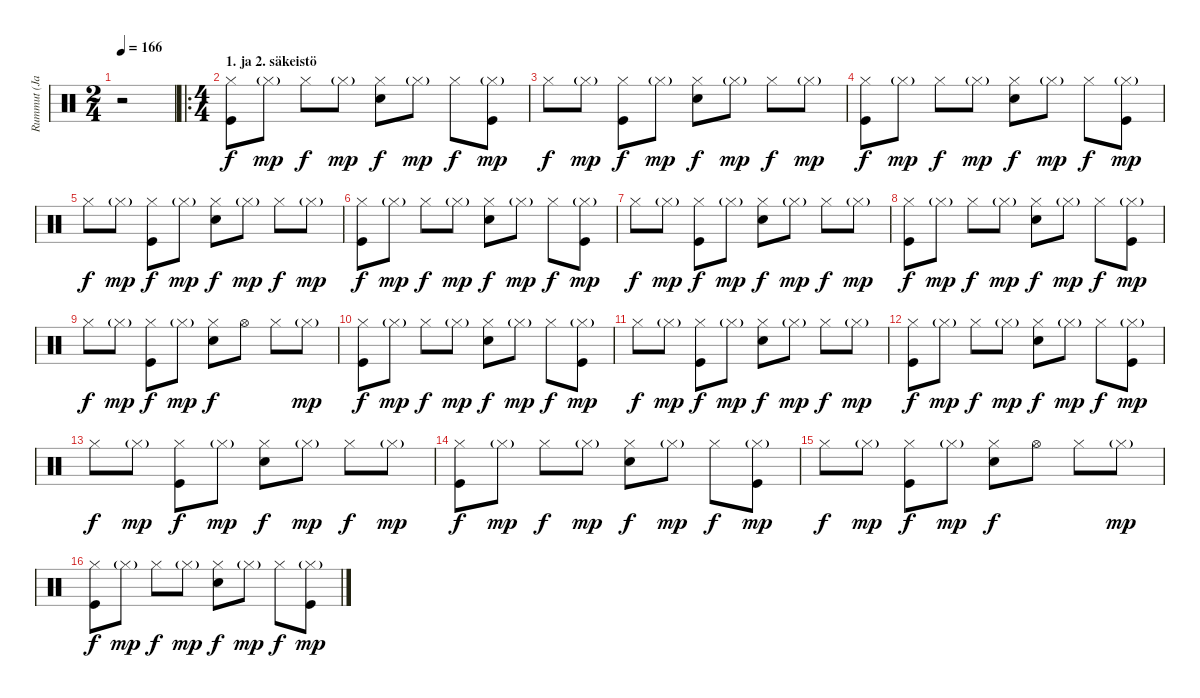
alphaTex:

\track ("Rummut (Janne)" "Rummut (Ja") {instrument percussion}
\staff {score}
\articulation defaults
\ts (2 4)
\tempo 166
\clef neutral
\ks c
r.2{dy f} |
\ro
\ts (4 4)
\section ("" "1. ja 2. säkeistö")
("Hi-Hat (closed)" "Kick (hit)").8 "Hi-Hat (closed)"{g}.8{dy mp} "Hi-Hat (closed)".8{dy f} "Hi-Hat (closed)"{g}.8{dy mp} ("Hi-Hat (closed)" "Snare (hit) 2").8{dy f} "Hi-Hat (closed)"{g}.8{dy mp} "Hi-Hat (closed)".8{dy f} ("Hi-Hat (closed)"{g} "Kick (hit)").8{dy mp} |
"Hi-Hat (closed)".8{dy f} "Hi-Hat (closed)"{g}.8{dy mp} ("Hi-Hat (closed)" "Kick (hit)").8{dy f} "Hi-Hat (closed)"{g}.8{dy mp} ("Hi-Hat (closed)" "Snare (hit) 2").8{dy f} "Hi-Hat (closed)"{g}.8{dy mp} "Hi-Hat (closed)".8{dy f} "Hi-Hat (closed)"{g}.8{dy mp} |
("Hi-Hat (closed)" "Kick (hit)").8{dy f} "Hi-Hat (closed)"{g}.8{dy mp} "Hi-Hat (closed)".8{dy f} "Hi-Hat (closed)"{g}.8{dy mp} ("Hi-Hat (closed)" "Snare (hit) 2").8{dy f} "Hi-Hat (closed)"{g}.8{dy mp} "Hi-Hat (closed)".8{dy f} ("Hi-Hat (closed)"{g} "Kick (hit)").8{dy mp} |
"Hi-Hat (closed)".8{dy f} "Hi-Hat (closed)"{g}.8{dy mp} ("Hi-Hat (closed)" "Kick (hit)").8{dy f} "Hi-Hat (closed)"{g}.8{dy mp} ("Hi-Hat (closed)" "Snare (hit) 2").8{dy f} "Hi-Hat (closed)"{g}.8{dy mp} "Hi-Hat (closed)".8{dy f} "Hi-Hat (closed)"{g}.8{dy mp} |
("Hi-Hat (closed)" "Kick (hit)").8{dy f} "Hi-Hat (closed)"{g}.8{dy mp} "Hi-Hat (closed)".8{dy f} "Hi-Hat (closed)"{g}.8{dy mp} ("Hi-Hat (closed)" "Snare (hit) 2").8{dy f} "Hi-Hat (closed)"{g}.8{dy mp} "Hi-Hat (closed)".8{dy f} ("Hi-Hat (closed)"{g} "Kick (hit)").8{dy mp} |
"Hi-Hat (closed)".8{dy f} "Hi-Hat (closed)"{g}.8{dy mp} ("Hi-Hat (closed)" "Kick (hit)").8{dy f} "Hi-Hat (closed)"{g}.8{dy mp} ("Hi-Hat (closed)" "Snare (hit) 2").8{dy f} "Hi-Hat (closed)"{g}.8{dy mp} "Hi-Hat (closed)".8{dy f} "Hi-Hat (closed)"{g}.8{dy mp} |
("Hi-Hat (closed)" "Kick (hit)").8{dy f} "Hi-Hat (closed)"{g}.8{dy mp} "Hi-Hat (closed)".8{dy f} "Hi-Hat (closed)"{g}.8{dy mp} ("Hi-Hat (closed)" "Snare (hit) 2").8{dy f} "Hi-Hat (closed)"{g}.8{dy mp} "Hi-Hat (closed)".8{dy f} ("Hi-Hat (closed)"{g} "Kick (hit)").8{dy mp} |
"Hi-Hat (closed)".8{dy f} "Hi-Hat (closed)"{g}.8{dy mp} ("Hi-Hat (closed)" "Kick (hit)").8{dy f} "Hi-Hat (closed)"{g}.8{dy mp} ("Hi-Hat (closed)" "Snare (hit) 2").8{dy f} "Hi-Hat (open)".8 "Hi-Hat (closed)".8 "Hi-Hat (closed)"{g}.8{dy mp} |
("Hi-Hat (closed)" "Kick (hit)").8{dy f} "Hi-Hat (closed)"{g}.8{dy mp} "Hi-Hat (closed)".8{dy f} "Hi-Hat (closed)"{g}.8{dy mp} ("Hi-Hat (closed)" "Snare (hit) 2").8{dy f} "Hi-Hat (closed)"{g}.8{dy mp} "Hi-Hat (closed)".8{dy f} ("Hi-Hat (closed)"{g} "Kick (hit)").8{dy mp} |
"Hi-Hat (closed)".8{dy f} "Hi-Hat (closed)"{g}.8{dy mp} ("Hi-Hat (closed)" "Kick (hit)").8{dy f} "Hi-Hat (closed)"{g}.8{dy mp} ("Hi-Hat (closed)" "Snare (hit) 2").8{dy f} "Hi-Hat (closed)"{g}.8{dy mp} "Hi-Hat (closed)".8{dy f} "Hi-Hat (closed)"{g}.8{dy mp} |
("Hi-Hat (closed)" "Kick (hit)").8{dy f} "Hi-Hat (closed)"{g}.8{dy mp} "Hi-Hat (closed)".8{dy f} "Hi-Hat (closed)"{g}.8{dy mp} ("Hi-Hat (closed)" "Snare (hit) 2").8{dy f} "Hi-Hat (closed)"{g}.8{dy mp} "Hi-Hat (closed)".8{dy f} ("Hi-Hat (closed)"{g} "Kick (hit)").8{dy mp} |
"Hi-Hat (closed)".8{dy f} "Hi-Hat (closed)"{g}.8{dy mp} ("Hi-Hat (closed)" "Kick (hit)").8{dy f} "Hi-Hat (closed)"{g}.8{dy mp} ("Hi-Hat (closed)" "Snare (hit) 2").8{dy f} "Hi-Hat (closed)"{g}.8{dy mp} "Hi-Hat (closed)".8{dy f} "Hi-Hat (closed)"{g}.8{dy mp} |
("Hi-Hat (closed)" "Kick (hit)").8{dy f} "Hi-Hat (closed)"{g}.8{dy mp} "Hi-Hat (closed)".8{dy f} "Hi-Hat (closed)"{g}.8{dy mp} ("Hi-Hat (closed)" "Snare (hit) 2").8{dy f} "Hi-Hat (closed)"{g}.8{dy mp} "Hi-Hat (closed)".8{dy f} ("Hi-Hat (closed)"{g} "Kick (hit)").8{dy mp} |
"Hi-Hat (closed)".8{dy f} "Hi-Hat (closed)"{g}.8{dy mp} ("Hi-Hat (closed)" "Kick (hit)").8{dy f} "Hi-Hat (closed)"{g}.8{dy mp} ("Hi-Hat (closed)" "Snare (hit) 2").8{dy f} "Hi-Hat (open)".8 "Hi-Hat (closed)".8 "Hi-Hat (closed)"{g}.8{dy mp} |
("Hi-Hat (closed)" "Kick (hit)").8{dy f} "Hi-Hat (closed)"{g}.8{dy mp} "Hi-Hat (closed)".8{dy f} "Hi-Hat (closed)"{g}.8{dy mp} ("Hi-Hat (closed)" "Snare (hit) 2").8{dy f} "Hi-Hat (closed)"{g}.8{dy mp} "Hi-Hat (closed)".8{dy f} ("Hi-Hat (closed)"{g} "Kick (hit)").8{dy mp}
